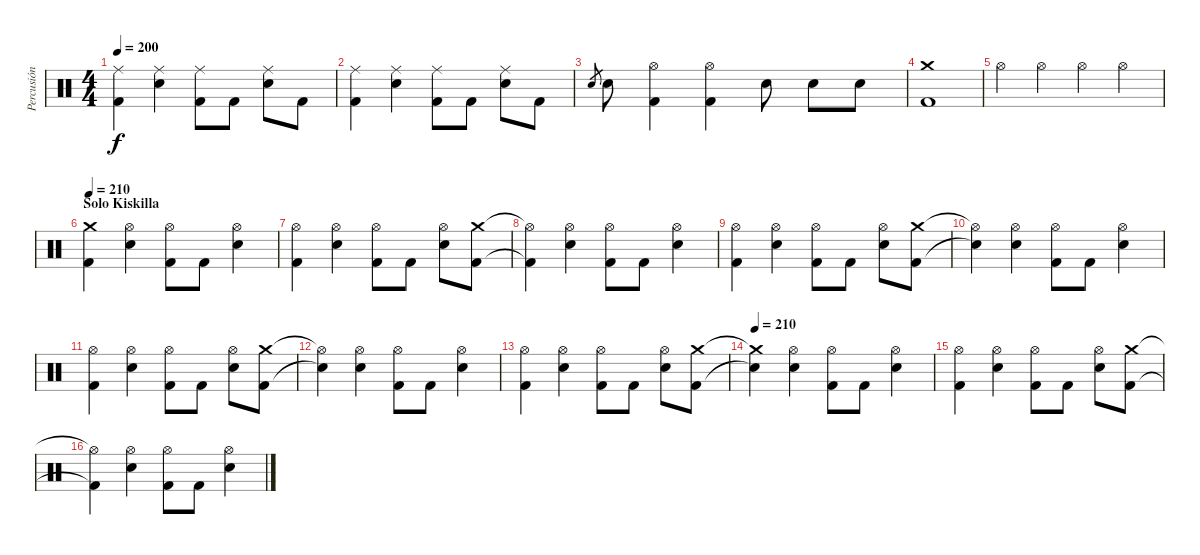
\track ("Percusión" "Percusión") {instrument percussion}
\staff {score}
\articulation defaults
\ts (4 4)
\tempo 200
\clef neutral
\ks c
("Ride (middle)" "Kick (hit) 2").4{dy f} ("Ride (middle)" "Snare (hit) 2").4 ("Ride (middle)" "Kick (hit) 2").8 "Kick (hit) 2".8 ("Ride (middle)" "Snare (hit) 2").8 "Kick (hit) 2".8 |
("Ride (middle)" "Kick (hit) 2").4 ("Ride (middle)" "Snare (hit) 2").4 ("Ride (middle)" "Kick (hit) 2").8 "Kick (hit) 2".8 ("Ride (middle)" "Snare (hit) 2").8 "Kick (hit) 2".8 |
"Snare (hit) 2".8{gr} "Snare (hit) 2".8 ("Hi-Hat (open)" "Kick (hit) 2").4 ("Hi-Hat (open)" "Kick (hit) 2").4 "Snare (hit) 2".8 "Snare (hit) 2".8 "Snare (hit) 2".8 |
("Crash medium (hit)" "Kick (hit) 2").1 |
"Hi-Hat (open)".4 "Hi-Hat (open)".4 "Hi-Hat (open)".4 "Hi-Hat (open)".4 |
\section ("" "Solo Kiskilla")
\tempo 210
("Crash medium (hit)" "Kick (hit) 2").4 ("Snare (hit) 2" "Hi-Hat (open)").4 ("Hi-Hat (open)" "Kick (hit) 2").8 "Kick (hit) 2".8 ("Snare (hit) 2" "Hi-Hat (open)").4 |
("Hi-Hat (open)" "Kick (hit) 2").4 ("Snare (hit) 2" "Hi-Hat (open)").4 ("Hi-Hat (open)" "Kick (hit) 2").8 "Kick (hit) 2".8 ("Snare (hit) 2" "Hi-Hat (open)").8 ("Crash medium (hit)" "Kick (hit) 2").8 |
("Hi-Hat (open)"{t} "Kick (hit) 2"{t}).4 ("Snare (hit) 2" "Hi-Hat (open)").4 ("Hi-Hat (open)" "Kick (hit) 2").8 "Kick (hit) 2".8 ("Snare (hit) 2" "Hi-Hat (open)").4 |
("Hi-Hat (open)" "Kick (hit) 2").4 ("Snare (hit) 2" "Hi-Hat (open)").4 ("Hi-Hat (open)" "Kick (hit) 2").8 "Kick (hit) 2".8 ("Snare (hit) 2" "Hi-Hat (open)").8 ("Crash medium (hit)" "Kick (hit) 2").8 |
("Hi-Hat (open)"{t} "Snare (hit)"{t}).4 ("Snare (hit) 2" "Hi-Hat (open)").4 ("Hi-Hat (open)" "Kick (hit) 2").8 "Kick (hit) 2".8 ("Snare (hit) 2" "Hi-Hat (open)").4 |
("Hi-Hat (open)" "Kick (hit) 2").4 ("Snare (hit) 2" "Hi-Hat (open)").4 ("Hi-Hat (open)" "Kick (hit) 2").8 "Kick (hit) 2".8 ("Snare (hit) 2" "Hi-Hat (open)").8 ("Crash medium (hit)" "Kick (hit) 2").8 |
("Hi-Hat (open)"{t} "Snare (hit)"{t}).4 ("Snare (hit) 2" "Hi-Hat (open)").4 ("Hi-Hat (open)" "Kick (hit) 2").8 "Kick (hit) 2".8 ("Snare (hit) 2" "Hi-Hat (open)").4 |
("Hi-Hat (open)" "Kick (hit) 2").4 ("Snare (hit) 2" "Hi-Hat (open)").4 ("Hi-Hat (open)" "Kick (hit) 2").8 "Kick (hit) 2".8 ("Snare (hit) 2" "Hi-Hat (open)").8 ("Crash medium (hit)" "Kick (hit) 2").8 |
\tempo 210
("Crash medium (hit)"{t} "Snare (hit)"{t}).4 ("Snare (hit) 2" "Hi-Hat (open)").4 ("Hi-Hat (open)" "Kick (hit) 2").8 "Kick (hit) 2".8 ("Snare (hit) 2" "Hi-Hat (open)").4 |
("Hi-Hat (open)" "Kick (hit) 2").4 ("Snare (hit) 2" "Hi-Hat (open)").4 ("Hi-Hat (open)" "Kick (hit) 2").8 "Kick (hit) 2".8 ("Snare (hit) 2" "Hi-Hat (open)").8 ("Crash medium (hit)" "Kick (hit) 2").8 |
("Hi-Hat (open)"{t} "Kick (hit) 2"{t}).4 ("Snare (hit) 2" "Hi-Hat (open)").4 ("Hi-Hat (open)" "Kick (hit) 2").8 "Kick (hit) 2".8 ("Snare (hit) 2" "Hi-Hat (open)").4
